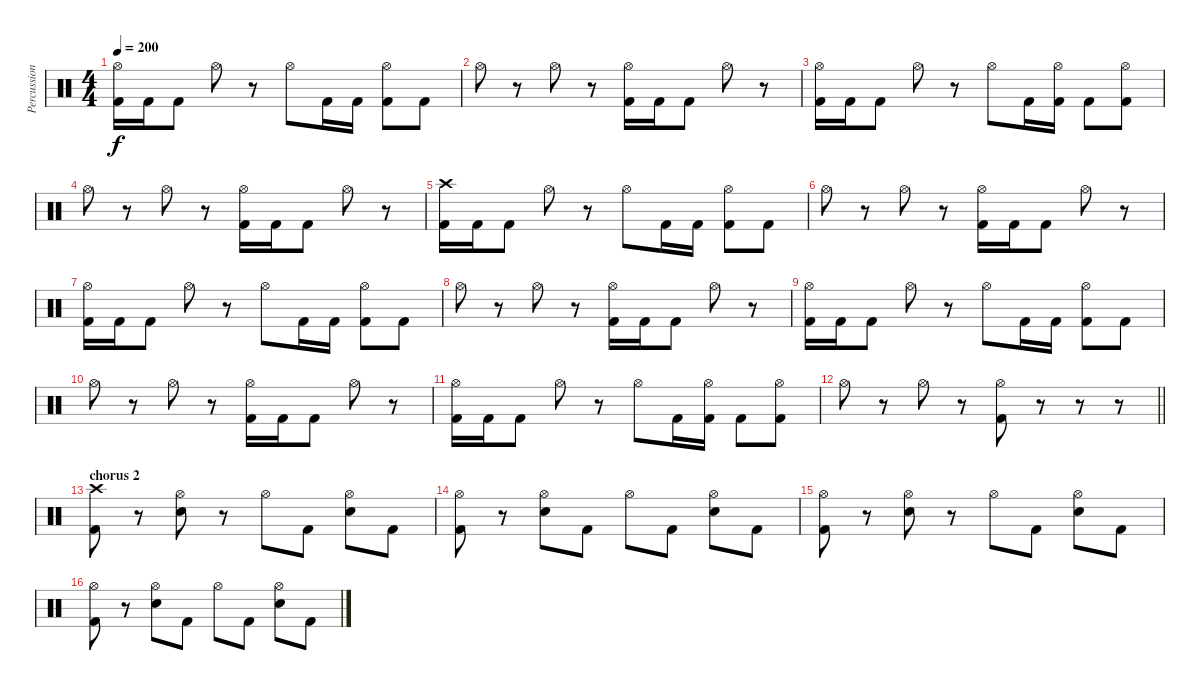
\track ("Percussion" "Percussion") {instrument percussion}
\staff {score}
\articulation defaults
\ts (4 4)
\tempo 200
\clef neutral
\ks c
("Hi-Hat (open)" "Kick (hit) 2").16{dy f} "Kick (hit) 2".16 "Kick (hit) 2".8 "Hi-Hat (open)".8 r.8 "Hi-Hat (open)".8 "Kick (hit) 2".16 "Kick (hit) 2".16 ("Hi-Hat (open)" "Kick (hit) 2").8 "Kick (hit) 2".8 |
"Hi-Hat (open)".8 r.8 "Hi-Hat (open)".8 r.8 ("Hi-Hat (open)" "Kick (hit) 2").16 "Kick (hit) 2".16 "Kick (hit) 2".8 "Hi-Hat (open)".8 r.8 |
("Hi-Hat (open)" "Kick (hit) 2").16 "Kick (hit) 2".16 "Kick (hit) 2".8 "Hi-Hat (open)".8 r.8 "Hi-Hat (open)".8 "Kick (hit) 2".16 ("Hi-Hat (open)" "Kick (hit) 2").16 "Kick (hit) 2".8 ("Hi-Hat (open)" "Kick (hit) 2").8 |
"Hi-Hat (open)".8 r.8 "Hi-Hat (open)".8 r.8 ("Hi-Hat (open)" "Kick (hit) 2").16 "Kick (hit) 2".16 "Kick (hit) 2".8 "Hi-Hat (open)".8 r.8 |
("Crash high (hit)" "Kick (hit) 2").16 "Kick (hit) 2".16 "Kick (hit) 2".8 "Hi-Hat (open)".8 r.8 "Hi-Hat (open)".8 "Kick (hit) 2".16 "Kick (hit) 2".16 ("Hi-Hat (open)" "Kick (hit) 2").8 "Kick (hit) 2".8 |
"Hi-Hat (open)".8 r.8 "Hi-Hat (open)".8 r.8 ("Hi-Hat (open)" "Kick (hit) 2").16 "Kick (hit) 2".16 "Kick (hit) 2".8 "Hi-Hat (open)".8 r.8 |
("Hi-Hat (open)" "Kick (hit) 2").16 "Kick (hit) 2".16 "Kick (hit) 2".8 "Hi-Hat (open)".8 r.8 "Hi-Hat (open)".8 "Kick (hit) 2".16 "Kick (hit) 2".16 ("Hi-Hat (open)" "Kick (hit) 2").8 "Kick (hit) 2".8 |
"Hi-Hat (open)".8 r.8 "Hi-Hat (open)".8 r.8 ("Hi-Hat (open)" "Kick (hit) 2").16 "Kick (hit) 2".16 "Kick (hit) 2".8 "Hi-Hat (open)".8 r.8 |
("Hi-Hat (open)" "Kick (hit) 2").16 "Kick (hit) 2".16 "Kick (hit) 2".8 "Hi-Hat (open)".8 r.8 "Hi-Hat (open)".8 "Kick (hit) 2".16 "Kick (hit) 2".16 ("Hi-Hat (open)" "Kick (hit) 2").8 "Kick (hit) 2".8 |
"Hi-Hat (open)".8 r.8 "Hi-Hat (open)".8 r.8 ("Hi-Hat (open)" "Kick (hit) 2").16 "Kick (hit) 2".16 "Kick (hit) 2".8 "Hi-Hat (open)".8 r.8 |
("Hi-Hat (open)" "Kick (hit) 2").16 "Kick (hit) 2".16 "Kick (hit) 2".8 "Hi-Hat (open)".8 r.8 "Hi-Hat (open)".8 "Kick (hit) 2".16 ("Hi-Hat (open)" "Kick (hit) 2").16 "Kick (hit) 2".8 ("Hi-Hat (open)" "Kick (hit) 2").8 |
\barLineRight lightlight "Hi-Hat (open)".8
r.8 "Hi-Hat (open)".8 r.8 ("Hi-Hat (open)" "Kick (hit) 2").8 r.8 r.8 r.8 |
\section ("" "chorus 2")
("Crash high (hit)" "Kick (hit) 2").8 r.8 ("Hi-Hat (open)" "Snare (hit) 2").8 r.8 "Hi-Hat (open)".8 "Kick (hit) 2".8 ("Hi-Hat (open)" "Snare (hit) 2").8 "Kick (hit) 2".8 |
("Hi-Hat (open)" "Kick (hit) 2").8 r.8 ("Hi-Hat (open)" "Snare (hit) 2").8 "Kick (hit) 2".8 "Hi-Hat (open)".8 "Kick (hit) 2".8 ("Hi-Hat (open)" "Snare (hit) 2").8 "Kick (hit) 2".8 |
("Hi-Hat (open)" "Kick (hit) 2").8 r.8 ("Hi-Hat (open)" "Snare (hit) 2").8 r.8 "Hi-Hat (open)".8 "Kick (hit) 2".8 ("Hi-Hat (open)" "Snare (hit) 2").8 "Kick (hit) 2".8 |
("Hi-Hat (open)" "Kick (hit) 2").8 r.8 ("Hi-Hat (open)" "Snare (hit) 2").8 "Kick (hit) 2".8 "Hi-Hat (open)".8 "Kick (hit) 2".8 ("Hi-Hat (open)" "Snare (hit) 2").8 "Kick (hit) 2".8
